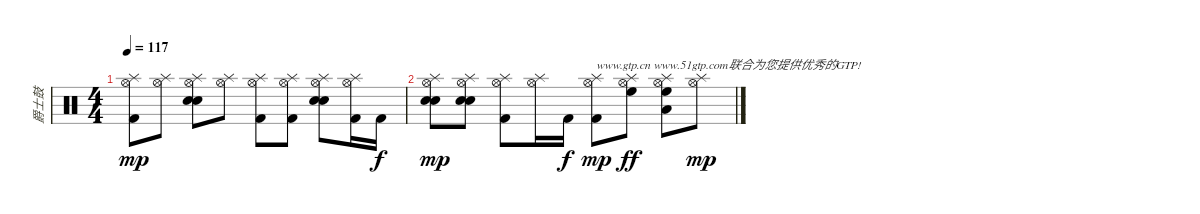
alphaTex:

\track ("爵士鼓" "爵士鼓") {instrument percussion}
\staff {score}
\articulation defaults
\ts (4 4)
\tempo 117
\clef neutral
\ks c
("Splash (hit)" "Hi-Hat (open)" "Kick (hit) 2").8{dy mp} ("Splash (hit)" "Hi-Hat (open)").8 ("Splash (hit)" "Hi-Hat (open)" "Electric Snare (hit)" "Snare (hit) 2").8 ("Splash (hit)" "Hi-Hat (open)").8 ("Splash (hit)" "Hi-Hat (open)" "Kick (hit) 2").8 ("Splash (hit)" "Hi-Hat (open)" "Kick (hit) 2").8 ("Splash (hit)" "Hi-Hat (open)" "Electric Snare (hit)" "Snare (hit) 2").8 ("Splash (hit)" "Hi-Hat (open)" "Kick (hit) 2").16 "Kick (hit) 2".16{dy f} |
("Splash (hit)" "Hi-Hat (open)" "Electric Snare (hit)" "Snare (hit) 2").8{dy mp} ("Splash (hit)" "Hi-Hat (open)" "Electric Snare (hit)" "Snare (hit) 2").8 ("Splash (hit)" "Hi-Hat (open)" "Kick (hit) 2").8 ("Splash (hit)" "Hi-Hat (open)").16 "Kick (hit) 2".16{dy f} ("Splash (hit)" "Hi-Hat (open)" "Kick (hit) 2").8{txt "www.gtp.cn www.51gtp.com联合为您提供优秀的GTP!" dy mp} ("Splash (hit)" "Hi-Hat (open)" "High Floor Tom (hit)").8{dy ff} ("Splash (hit)" "Hi-Hat (open)" "Low Tom (hit)" "High Floor Tom (hit)").8 ("Splash (hit)" "Hi-Hat (open)").8{dy mp}
